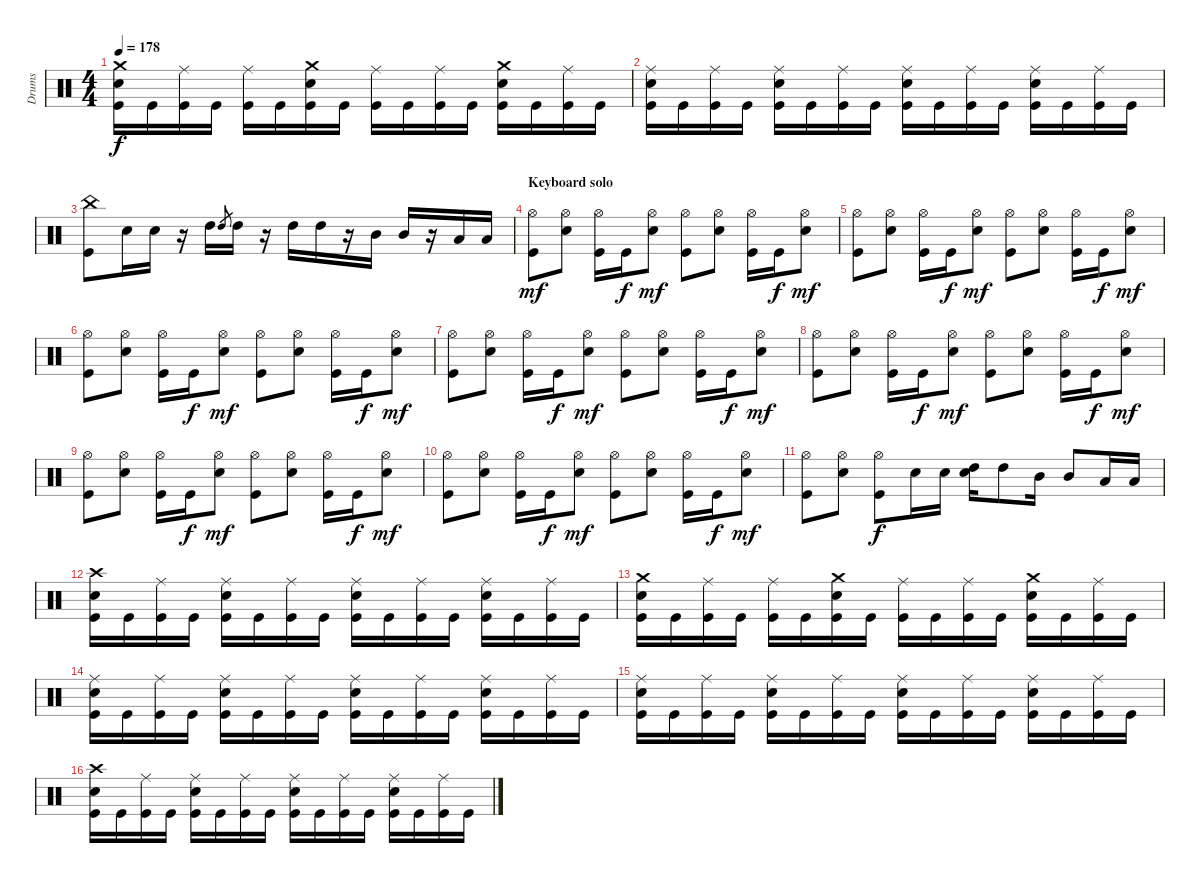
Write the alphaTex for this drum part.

\track ("Drums" "Drums") {instrument percussion}
\staff {score}
\articulation defaults
\ts (4 4)
\tempo 178
\clef neutral
\ks c
("Crash medium (hit)" "Electric Snare (hit)" "Kick (hit)").16{dy f} "Kick (hit)".16 ("Ride (middle)" "Kick (hit)").16 "Kick (hit)".16 ("Ride (middle)" "Kick (hit)").16 "Kick (hit)".16 ("Crash medium (hit)" "Electric Snare (hit)" "Kick (hit)").16 "Kick (hit)".16 ("Ride (middle)" "Kick (hit)").16 "Kick (hit)".16 ("Ride (middle)" "Kick (hit)").16 "Kick (hit)".16 ("Crash medium (hit)" "Electric Snare (hit)" "Kick (hit)").16 "Kick (hit)".16 ("Ride (middle)" "Kick (hit)").16 "Kick (hit)".16 |
("Ride (middle)" "Electric Snare (hit)" "Kick (hit)").16 "Kick (hit)".16 ("Ride (middle)" "Kick (hit)").16 "Kick (hit)".16 ("Ride (middle)" "Electric Snare (hit)" "Kick (hit)").16 "Kick (hit)".16 ("Ride (middle)" "Kick (hit)").16 "Kick (hit)".16 ("Ride (middle)" "Electric Snare (hit)" "Kick (hit)").16 "Kick (hit)".16 ("Ride (middle)" "Kick (hit)").16 "Kick (hit)".16 ("Ride (middle)" "Electric Snare (hit)" "Kick (hit)").16 "Kick (hit)".16 ("Ride (middle)" "Kick (hit)").16 "Kick (hit)".16 |
("China (hit)" "Kick (hit)").8 "Electric Snare (hit)".16 "Electric Snare (hit)".16 r.16 "High Tom (hit)".16 "High Tom (hit)".8{gr} "High Tom (hit)".16 r.16 "High Tom (hit)".16 "High Tom (hit)".16 r.16 "Mid Tom (hit)".16 "Mid Tom (hit)".16 r.16 "Low Tom (hit)".16 "Low Tom (hit)".16 |
\section ("" "Keyboard solo")
("Hi-Hat (open)" "Kick (hit)").8{dy mf} ("Hi-Hat (open)" "Electric Snare (hit)").8 ("Hi-Hat (open)" "Kick (hit)").16 "Kick (hit)".16{dy f} ("Hi-Hat (open)" "Electric Snare (hit)").8{dy mf} ("Hi-Hat (open)" "Kick (hit)").8 ("Hi-Hat (open)" "Electric Snare (hit)").8 ("Hi-Hat (open)" "Kick (hit)").16 "Kick (hit)".16{dy f} ("Hi-Hat (open)" "Electric Snare (hit)").8{dy mf} |
("Hi-Hat (open)" "Kick (hit)").8 ("Hi-Hat (open)" "Electric Snare (hit)").8 ("Hi-Hat (open)" "Kick (hit)").16 "Kick (hit)".16{dy f} ("Hi-Hat (open)" "Electric Snare (hit)").8{dy mf} ("Hi-Hat (open)" "Kick (hit)").8 ("Hi-Hat (open)" "Electric Snare (hit)").8 ("Hi-Hat (open)" "Kick (hit)").16 "Kick (hit)".16{dy f} ("Hi-Hat (open)" "Electric Snare (hit)").8{dy mf} |
("Hi-Hat (open)" "Kick (hit)").8 ("Hi-Hat (open)" "Electric Snare (hit)").8 ("Hi-Hat (open)" "Kick (hit)").16 "Kick (hit)".16{dy f} ("Hi-Hat (open)" "Electric Snare (hit)").8{dy mf} ("Hi-Hat (open)" "Kick (hit)").8 ("Hi-Hat (open)" "Electric Snare (hit)").8 ("Hi-Hat (open)" "Kick (hit)").16 "Kick (hit)".16{dy f} ("Hi-Hat (open)" "Electric Snare (hit)").8{dy mf} |
("Hi-Hat (open)" "Kick (hit)").8 ("Hi-Hat (open)" "Electric Snare (hit)").8 ("Hi-Hat (open)" "Kick (hit)").16 "Kick (hit)".16{dy f} ("Hi-Hat (open)" "Electric Snare (hit)").8{dy mf} ("Hi-Hat (open)" "Kick (hit)").8 ("Hi-Hat (open)" "Electric Snare (hit)").8 ("Hi-Hat (open)" "Kick (hit)").16 "Kick (hit)".16{dy f} ("Hi-Hat (open)" "Electric Snare (hit)").8{dy mf} |
("Hi-Hat (open)" "Kick (hit)").8 ("Hi-Hat (open)" "Electric Snare (hit)").8 ("Hi-Hat (open)" "Kick (hit)").16 "Kick (hit)".16{dy f} ("Hi-Hat (open)" "Electric Snare (hit)").8{dy mf} ("Hi-Hat (open)" "Kick (hit)").8 ("Hi-Hat (open)" "Electric Snare (hit)").8 ("Hi-Hat (open)" "Kick (hit)").16 "Kick (hit)".16{dy f} ("Hi-Hat (open)" "Electric Snare (hit)").8{dy mf} |
("Hi-Hat (open)" "Kick (hit)").8 ("Hi-Hat (open)" "Electric Snare (hit)").8 ("Hi-Hat (open)" "Kick (hit)").16 "Kick (hit)".16{dy f} ("Hi-Hat (open)" "Electric Snare (hit)").8{dy mf} ("Hi-Hat (open)" "Kick (hit)").8 ("Hi-Hat (open)" "Electric Snare (hit)").8 ("Hi-Hat (open)" "Kick (hit)").16 "Kick (hit)".16{dy f} ("Hi-Hat (open)" "Electric Snare (hit)").8{dy mf} |
("Hi-Hat (open)" "Kick (hit)").8 ("Hi-Hat (open)" "Electric Snare (hit)").8 ("Hi-Hat (open)" "Kick (hit)").16 "Kick (hit)".16{dy f} ("Hi-Hat (open)" "Electric Snare (hit)").8{dy mf} ("Hi-Hat (open)" "Kick (hit)").8 ("Hi-Hat (open)" "Electric Snare (hit)").8 ("Hi-Hat (open)" "Kick (hit)").16 "Kick (hit)".16{dy f} ("Hi-Hat (open)" "Electric Snare (hit)").8{dy mf} |
("Hi-Hat (open)" "Kick (hit)").8 ("Hi-Hat (open)" "Electric Snare (hit)").8 ("Hi-Hat (open)" "Kick (hit)").8{dy f} "Electric Snare (hit)".16 "Electric Snare (hit)".16 ("Electric Snare (hit)" "High Tom (hit)").16 "High Tom (hit)".8 "Mid Tom (hit)".16 "Mid Tom (hit)".8 "Low Tom (hit)".16 "Low Tom (hit)".16 |
("Crash high (hit)" "Electric Snare (hit)" "Kick (hit)").16 "Kick (hit)".16 ("Ride (middle)" "Kick (hit)").16 "Kick (hit)".16 ("Ride (middle)" "Electric Snare (hit)" "Kick (hit)").16 "Kick (hit)".16 ("Ride (middle)" "Kick (hit)").16 "Kick (hit)".16 ("Ride (middle)" "Electric Snare (hit)" "Kick (hit)").16 "Kick (hit)".16 ("Ride (middle)" "Kick (hit)").16 "Kick (hit)".16 ("Ride (middle)" "Electric Snare (hit)" "Kick (hit)").16 "Kick (hit)".16 ("Ride (middle)" "Kick (hit)").16 "Kick (hit)".16 |
("Crash medium (hit)" "Electric Snare (hit)" "Kick (hit)").16 "Kick (hit)".16 ("Ride (middle)" "Kick (hit)").16 "Kick (hit)".16 ("Ride (middle)" "Kick (hit)").16 "Kick (hit)".16 ("Crash medium (hit)" "Electric Snare (hit)" "Kick (hit)").16 "Kick (hit)".16 ("Ride (middle)" "Kick (hit)").16 "Kick (hit)".16 ("Ride (middle)" "Kick (hit)").16 "Kick (hit)".16 ("Crash medium (hit)" "Electric Snare (hit)" "Kick (hit)").16 "Kick (hit)".16 ("Ride (middle)" "Kick (hit)").16 "Kick (hit)".16 |
("Ride (middle)" "Electric Snare (hit)" "Kick (hit)").16 "Kick (hit)".16 ("Ride (middle)" "Kick (hit)").16 "Kick (hit)".16 ("Ride (middle)" "Electric Snare (hit)" "Kick (hit)").16 "Kick (hit)".16 ("Ride (middle)" "Kick (hit)").16 "Kick (hit)".16 ("Ride (middle)" "Electric Snare (hit)" "Kick (hit)").16 "Kick (hit)".16 ("Ride (middle)" "Kick (hit)").16 "Kick (hit)".16 ("Ride (middle)" "Electric Snare (hit)" "Kick (hit)").16 "Kick (hit)".16 ("Ride (middle)" "Kick (hit)").16 "Kick (hit)".16 |
("Ride (middle)" "Electric Snare (hit)" "Kick (hit)").16 "Kick (hit)".16 ("Ride (middle)" "Kick (hit)").16 "Kick (hit)".16 ("Ride (middle)" "Electric Snare (hit)" "Kick (hit)").16 "Kick (hit)".16 ("Ride (middle)" "Kick (hit)").16 "Kick (hit)".16 ("Ride (middle)" "Electric Snare (hit)" "Kick (hit)").16 "Kick (hit)".16 ("Ride (middle)" "Kick (hit)").16 "Kick (hit)".16 ("Ride (middle)" "Electric Snare (hit)" "Kick (hit)").16 "Kick (hit)".16 ("Ride (middle)" "Kick (hit)").16 "Kick (hit)".16 |
("Crash high (hit)" "Electric Snare (hit)" "Kick (hit)").16 "Kick (hit)".16 ("Ride (middle)" "Kick (hit)").16 "Kick (hit)".16 ("Ride (middle)" "Electric Snare (hit)" "Kick (hit)").16 "Kick (hit)".16 ("Ride (middle)" "Kick (hit)").16 "Kick (hit)".16 ("Ride (middle)" "Electric Snare (hit)" "Kick (hit)").16 "Kick (hit)".16 ("Ride (middle)" "Kick (hit)").16 "Kick (hit)".16 ("Ride (middle)" "Electric Snare (hit)" "Kick (hit)").16 "Kick (hit)".16 ("Ride (middle)" "Kick (hit)").16 "Kick (hit)".16
